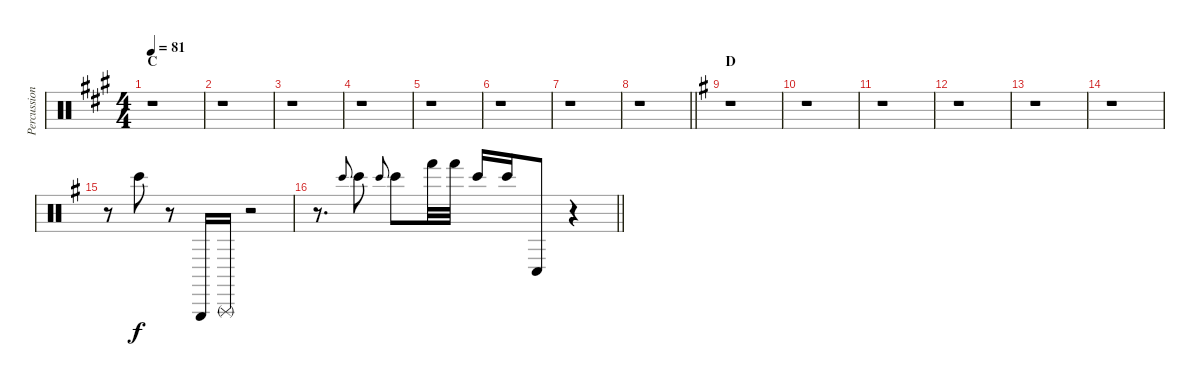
\track ("Percussion" "Percussion") {instrument percussion}
\staff {score}
\articulation defaults
\ts (4 4)
\section ("" "C")
\tempo 81
\clef neutral
\ks f#minor
r.1{dy fff} |
r.1 |
r.1 |
r.1 |
r.1 |
r.1 |
r.1 |
\barLineRight lightlight
r.1 |
\section ("" "D")
\ks eminor
r.1 |
r.1 |
r.1 |
r.1 |
r.1 |
r.1 |
r.8 "Bongo High (hit)".8{dy f} r.8 "Triangle (hit)".16 "Triangle (rnute)".16 r.2 |
\barLineRight lightlight
r.8{d} "Bongo High (hit)".8{gr onbeat} "Bongo High (hit)".8 "Bongo High (hit)".8{gr onbeat} "Bongo High (hit)".8 "Hand (hit)".32 "Hand (hit)".32 "Bongo High (hit)".16 "Bongo High (hit)".16 "Conga low (hit)".8 r.4
